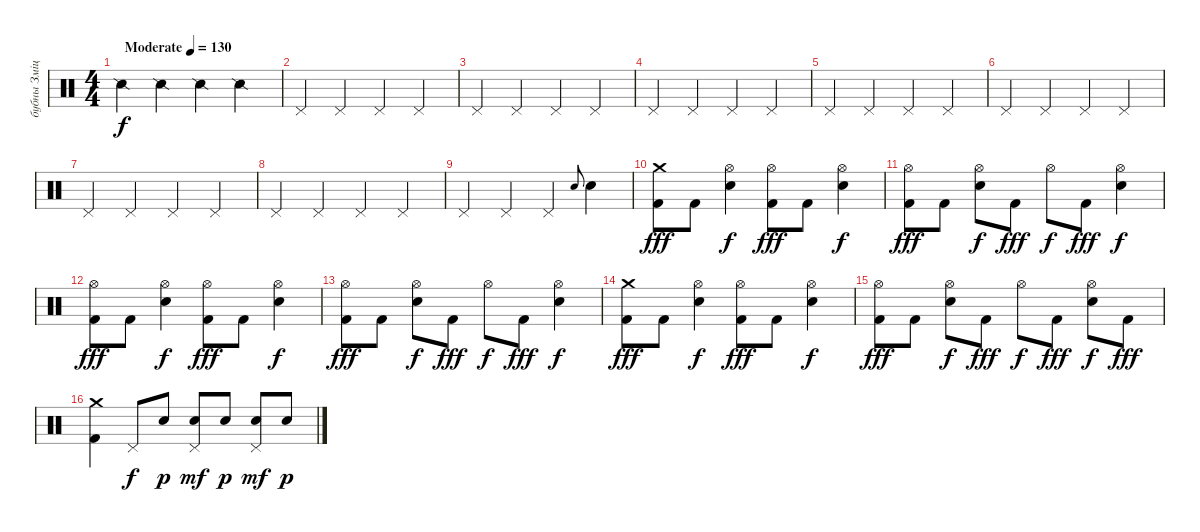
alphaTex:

\track ("бубны Змiцер" "бубны Змiц") {instrument percussion}
\staff {score}
\articulation defaults
\ts (4 4)
\tempo (130 "Moderate")
\clef neutral
\ks c "Snare (side stick) 2".4{dy f} "Snare (side stick) 2".4 "Snare (side stick) 2".4 "Snare (side stick) 2".4
|
"Pedal Hi-Hat (hit)".4 "Pedal Hi-Hat (hit)".4 "Pedal Hi-Hat (hit)".4 "Pedal Hi-Hat (hit)".4 |
"Pedal Hi-Hat (hit)".4 "Pedal Hi-Hat (hit)".4 "Pedal Hi-Hat (hit)".4 "Pedal Hi-Hat (hit)".4 |
"Pedal Hi-Hat (hit)".4 "Pedal Hi-Hat (hit)".4 "Pedal Hi-Hat (hit)".4 "Pedal Hi-Hat (hit)".4 |
"Pedal Hi-Hat (hit)".4 "Pedal Hi-Hat (hit)".4 "Pedal Hi-Hat (hit)".4 "Pedal Hi-Hat (hit)".4 |
"Pedal Hi-Hat (hit)".4 "Pedal Hi-Hat (hit)".4 "Pedal Hi-Hat (hit)".4 "Pedal Hi-Hat (hit)".4 |
"Pedal Hi-Hat (hit)".4 "Pedal Hi-Hat (hit)".4 "Pedal Hi-Hat (hit)".4 "Pedal Hi-Hat (hit)".4 |
"Pedal Hi-Hat (hit)".4 "Pedal Hi-Hat (hit)".4 "Pedal Hi-Hat (hit)".4 "Pedal Hi-Hat (hit)".4 |
"Pedal Hi-Hat (hit)".4 "Pedal Hi-Hat (hit)".4 "Pedal Hi-Hat (hit)".4 "Electric Snare (hit)".8{gr onbeat} "Electric Snare (hit)".4 |
("Crash medium (hit)" "Kick (hit) 2").8{dy fff} "Kick (hit) 2".8 ("Hi-Hat (open)" "Electric Snare (hit)").4{dy f} ("Hi-Hat (open)" "Kick (hit) 2").8{dy fff} "Kick (hit) 2".8 ("Hi-Hat (open)" "Electric Snare (hit)").4{dy f} |
("Hi-Hat (open)" "Kick (hit) 2").8{dy fff} "Kick (hit) 2".8 ("Hi-Hat (open)" "Electric Snare (hit)").8{dy f} "Kick (hit) 2".8{dy fff} "Hi-Hat (open)".8{dy f} "Kick (hit) 2".8{dy fff} ("Hi-Hat (open)" "Electric Snare (hit)").4{dy f} |
("Hi-Hat (open)" "Kick (hit) 2").8{dy fff} "Kick (hit) 2".8 ("Hi-Hat (open)" "Electric Snare (hit)").4{dy f} ("Hi-Hat (open)" "Kick (hit) 2").8{dy fff} "Kick (hit) 2".8 ("Hi-Hat (open)" "Electric Snare (hit)").4{dy f} |
("Hi-Hat (open)" "Kick (hit) 2").8{dy fff} "Kick (hit) 2".8 ("Hi-Hat (open)" "Electric Snare (hit)").8{dy f} "Kick (hit) 2".8{dy fff} "Hi-Hat (open)".8{dy f} "Kick (hit) 2".8{dy fff} ("Hi-Hat (open)" "Electric Snare (hit)").4{dy f} |
("Crash medium (hit)" "Kick (hit) 2").8{dy fff} "Kick (hit) 2".8 ("Hi-Hat (open)" "Electric Snare (hit)").4{dy f} ("Hi-Hat (open)" "Kick (hit) 2").8{dy fff} "Kick (hit) 2".8 ("Hi-Hat (open)" "Electric Snare (hit)").4{dy f} |
("Hi-Hat (open)" "Kick (hit) 2").8{dy fff} "Kick (hit) 2".8 ("Hi-Hat (open)" "Electric Snare (hit)").8{dy f} "Kick (hit) 2".8{dy fff} "Hi-Hat (open)".8{dy f} "Kick (hit) 2".8{dy fff} ("Hi-Hat (open)" "Electric Snare (hit)").8{dy f} "Kick (hit) 2".8{dy fff} |
("Crash medium (hit)" "Kick (hit) 2").4 "Pedal Hi-Hat (hit)".8{dy f} "Electric Snare (hit)".8{dy p} ("Electric Snare (hit)" "Pedal Hi-Hat (hit)").8{dy mf} "Electric Snare (hit)".8{dy p} ("Electric Snare (hit)" "Pedal Hi-Hat (hit)").8{dy mf} "Electric Snare (hit)".8{dy p}
